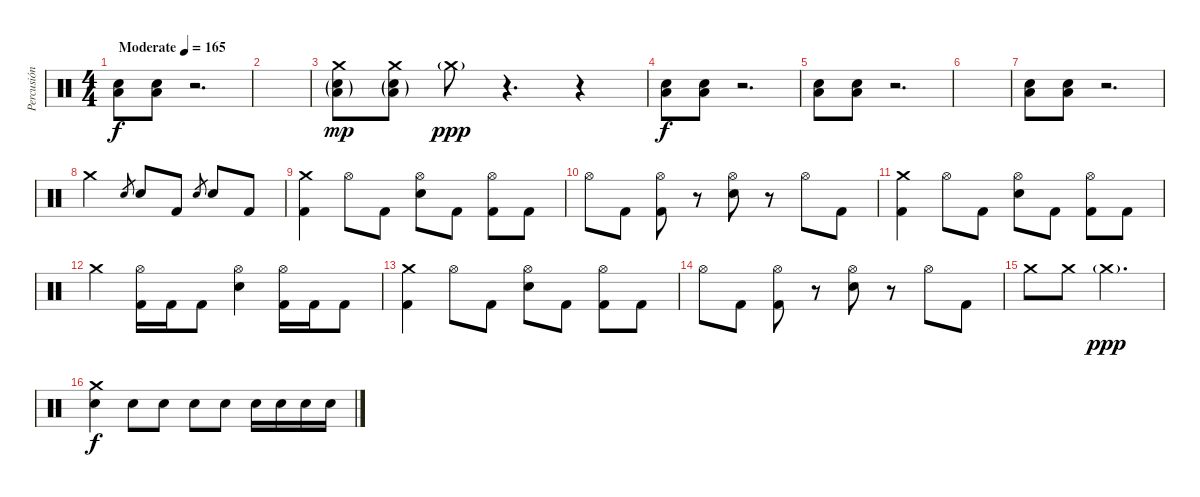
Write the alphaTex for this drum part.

\track ("Percusión" "Percusión") {instrument percussion}
\staff {score}
\articulation defaults
\ts (4 4)
\tempo (165 "Moderate")
\clef neutral
\ks c
("Low Tom (hit)" "Electric Snare (hit)").8{dy f} ("Low Tom (hit)" "Electric Snare (hit)").8 r.2{d} |
|
("Crash medium (hit)" "Low Tom (hit)"{g} "Electric Snare (hit)"{g}).8{dy mp} ("Crash medium (hit)" "Low Tom (hit)"{g} "Electric Snare (hit)"{g}).8 "Crash medium (hit)"{g}.8{dy ppp} r.4{d} r.4 |
("Low Tom (hit)" "Electric Snare (hit)").8{dy f} ("Low Tom (hit)" "Electric Snare (hit)").8 r.2{d} |
("Low Tom (hit)" "Electric Snare (hit)").8 ("Low Tom (hit)" "Electric Snare (hit)").8 r.2{d} |
|
("Low Tom (hit)" "Electric Snare (hit)").8 ("Low Tom (hit)" "Electric Snare (hit)").8 r.2{d} |
"Crash medium (hit)".2 "Electric Snare (hit)".8{gr} "Electric Snare (hit)".8 "Kick (hit) 2".8 "Electric Snare (hit)".8{gr} "Electric Snare (hit)".8 "Kick (hit) 2".8 |
("Crash medium (hit)" "Kick (hit) 2").4 "Hi-Hat (open)".8 "Kick (hit) 2".8 ("Hi-Hat (open)" "Electric Snare (hit)").8 "Kick (hit) 2".8 ("Hi-Hat (open)" "Kick (hit) 2").8 "Kick (hit) 2".8 |
"Hi-Hat (open)".8 "Kick (hit) 2".8 ("Hi-Hat (open)" "Kick (hit) 2").8 r.8 ("Hi-Hat (open)" "Electric Snare (hit)").8 r.8 "Hi-Hat (open)".8 "Kick (hit) 2".8 |
("Crash medium (hit)" "Kick (hit) 2").4 "Hi-Hat (open)".8 "Kick (hit) 2".8 ("Hi-Hat (open)" "Electric Snare (hit)").8 "Kick (hit) 2".8 ("Hi-Hat (open)" "Kick (hit) 2").8 "Kick (hit) 2".8 |
"Crash medium (hit)".4 ("Hi-Hat (open)" "Kick (hit) 2").16 "Kick (hit) 2".16 "Kick (hit) 2".8 ("Hi-Hat (open)" "Electric Snare (hit)").4 ("Hi-Hat (open)" "Kick (hit) 2").16 "Kick (hit) 2".16 "Kick (hit) 2".8 |
("Crash medium (hit)" "Kick (hit) 2").4 "Hi-Hat (open)".8 "Kick (hit) 2".8 ("Hi-Hat (open)" "Electric Snare (hit)").8 "Kick (hit) 2".8 ("Hi-Hat (open)" "Kick (hit) 2").8 "Kick (hit) 2".8 |
"Hi-Hat (open)".8 "Kick (hit) 2".8 ("Hi-Hat (open)" "Kick (hit) 2").8 r.8 ("Hi-Hat (open)" "Electric Snare (hit)").8 r.8 "Hi-Hat (open)".8 "Kick (hit) 2".8 |
"Crash medium (hit)".8 "Crash medium (hit)".8 "Crash medium (hit)"{g}.2{d dy ppp} |
("Crash medium (hit)" "Electric Snare (hit)").4{dy f} "Electric Snare (hit)".8 "Electric Snare (hit)".8 "Electric Snare (hit)".8 "Electric Snare (hit)".8 "Electric Snare (hit)".16 "Electric Snare (hit)".16 "Electric Snare (hit)".16 "Electric Snare (hit)".16
